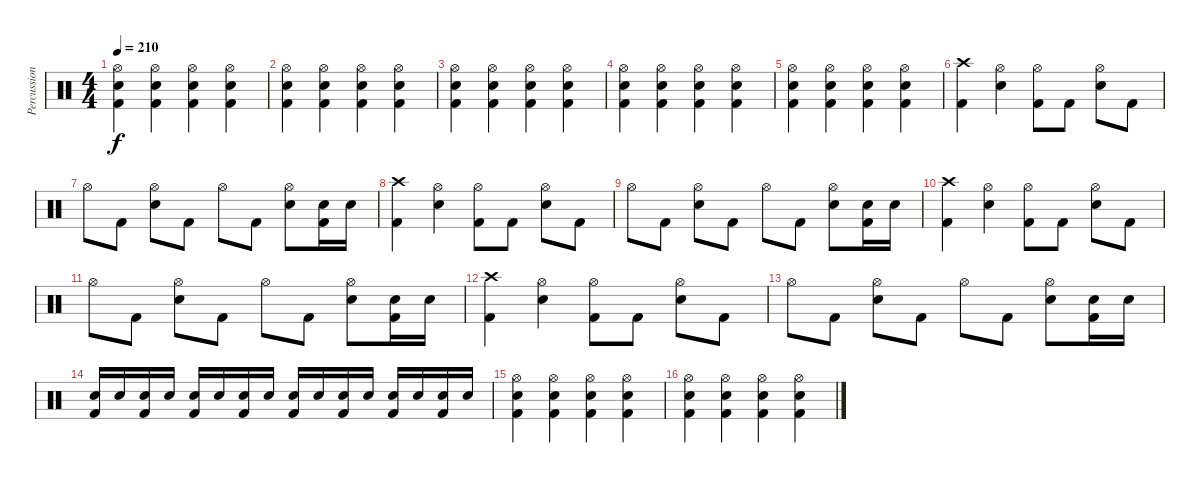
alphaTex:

\track ("Percussions" "Percussion") {instrument percussion}
\staff {score}
\articulation defaults
\ts (4 4)
\tempo 210
\clef neutral
\ks c
("Kick (hit) 2" "Snare (hit) 2" "Hi-Hat (open)").4{dy f} ("Kick (hit) 2" "Snare (hit) 2" "Hi-Hat (open)").4 ("Kick (hit) 2" "Snare (hit) 2" "Hi-Hat (open)").4 ("Kick (hit) 2" "Snare (hit) 2" "Hi-Hat (open)").4 |
("Kick (hit) 2" "Snare (hit) 2" "Hi-Hat (open)").4 ("Kick (hit) 2" "Snare (hit) 2" "Hi-Hat (open)").4 ("Kick (hit) 2" "Snare (hit) 2" "Hi-Hat (open)").4 ("Kick (hit) 2" "Snare (hit) 2" "Hi-Hat (open)").4 |
("Kick (hit) 2" "Snare (hit) 2" "Hi-Hat (open)").4 ("Kick (hit) 2" "Snare (hit) 2" "Hi-Hat (open)").4 ("Kick (hit) 2" "Snare (hit) 2" "Hi-Hat (open)").4 ("Kick (hit) 2" "Snare (hit) 2" "Hi-Hat (open)").4 |
("Kick (hit) 2" "Snare (hit) 2" "Hi-Hat (open)").4 ("Kick (hit) 2" "Snare (hit) 2" "Hi-Hat (open)").4 ("Kick (hit) 2" "Snare (hit) 2" "Hi-Hat (open)").4 ("Kick (hit) 2" "Snare (hit) 2" "Hi-Hat (open)").4 |
("Kick (hit) 2" "Snare (hit) 2" "Hi-Hat (open)").4 ("Kick (hit) 2" "Snare (hit) 2" "Hi-Hat (open)").4 ("Kick (hit) 2" "Snare (hit) 2" "Hi-Hat (open)").4 ("Kick (hit) 2" "Snare (hit) 2" "Hi-Hat (open)").4 |
("Kick (hit) 2" "Crash high (hit)").4 ("Snare (hit) 2" "Hi-Hat (open)").4 ("Kick (hit) 2" "Hi-Hat (open)").8 "Kick (hit) 2".8 ("Snare (hit) 2" "Hi-Hat (open)").8 "Kick (hit) 2".8 |
"Hi-Hat (open)".8 "Kick (hit) 2".8 ("Snare (hit) 2" "Hi-Hat (open)").8 "Kick (hit) 2".8 "Hi-Hat (open)".8 "Kick (hit) 2".8 ("Snare (hit) 2" "Hi-Hat (open)").8 ("Kick (hit) 2" "Snare (hit) 2").16 "Snare (hit) 2".16 |
("Kick (hit) 2" "Crash high (hit)").4 ("Snare (hit) 2" "Hi-Hat (open)").4 ("Kick (hit) 2" "Hi-Hat (open)").8 "Kick (hit) 2".8 ("Snare (hit) 2" "Hi-Hat (open)").8 "Kick (hit) 2".8 |
"Hi-Hat (open)".8 "Kick (hit) 2".8 ("Snare (hit) 2" "Hi-Hat (open)").8 "Kick (hit) 2".8 "Hi-Hat (open)".8 "Kick (hit) 2".8 ("Snare (hit) 2" "Hi-Hat (open)").8 ("Kick (hit) 2" "Snare (hit) 2").16 "Snare (hit) 2".16 |
("Kick (hit) 2" "Crash high (hit)").4 ("Snare (hit) 2" "Hi-Hat (open)").4 ("Kick (hit) 2" "Hi-Hat (open)").8 "Kick (hit) 2".8 ("Snare (hit) 2" "Hi-Hat (open)").8 "Kick (hit) 2".8 |
"Hi-Hat (open)".8 "Kick (hit) 2".8 ("Snare (hit) 2" "Hi-Hat (open)").8 "Kick (hit) 2".8 "Hi-Hat (open)".8 "Kick (hit) 2".8 ("Snare (hit) 2" "Hi-Hat (open)").8 ("Kick (hit) 2" "Snare (hit) 2").16 "Snare (hit) 2".16 |
("Kick (hit) 2" "Crash high (hit)").4 ("Snare (hit) 2" "Hi-Hat (open)").4 ("Kick (hit) 2" "Hi-Hat (open)").8 "Kick (hit) 2".8 ("Snare (hit) 2" "Hi-Hat (open)").8 "Kick (hit) 2".8 |
"Hi-Hat (open)".8 "Kick (hit) 2".8 ("Snare (hit) 2" "Hi-Hat (open)").8 "Kick (hit) 2".8 "Hi-Hat (open)".8 "Kick (hit) 2".8 ("Snare (hit) 2" "Hi-Hat (open)").8 ("Kick (hit) 2" "Snare (hit) 2").16 "Snare (hit) 2".16 |
("Kick (hit) 2" "Snare (hit) 2").16 "Snare (hit) 2".16 ("Kick (hit) 2" "Snare (hit) 2").16 "Snare (hit) 2".16 ("Kick (hit) 2" "Snare (hit) 2").16 "Snare (hit) 2".16 ("Kick (hit) 2" "Snare (hit) 2").16 "Snare (hit) 2".16 ("Kick (hit) 2" "Snare (hit) 2").16 "Snare (hit) 2".16 ("Kick (hit) 2" "Snare (hit) 2").16 "Snare (hit) 2".16 ("Kick (hit) 2" "Snare (hit) 2").16 "Snare (hit) 2".16 ("Kick (hit) 2" "Snare (hit) 2").16 "Snare (hit) 2".16 |
("Kick (hit) 2" "Snare (hit) 2" "Hi-Hat (open)").4 ("Kick (hit) 2" "Snare (hit) 2" "Hi-Hat (open)").4 ("Kick (hit) 2" "Snare (hit) 2" "Hi-Hat (open)").4 ("Kick (hit) 2" "Snare (hit) 2" "Hi-Hat (open)").4 |
("Kick (hit) 2" "Snare (hit) 2" "Hi-Hat (open)").4 ("Kick (hit) 2" "Snare (hit) 2" "Hi-Hat (open)").4 ("Kick (hit) 2" "Snare (hit) 2" "Hi-Hat (open)").4 ("Kick (hit) 2" "Snare (hit) 2" "Hi-Hat (open)").4
